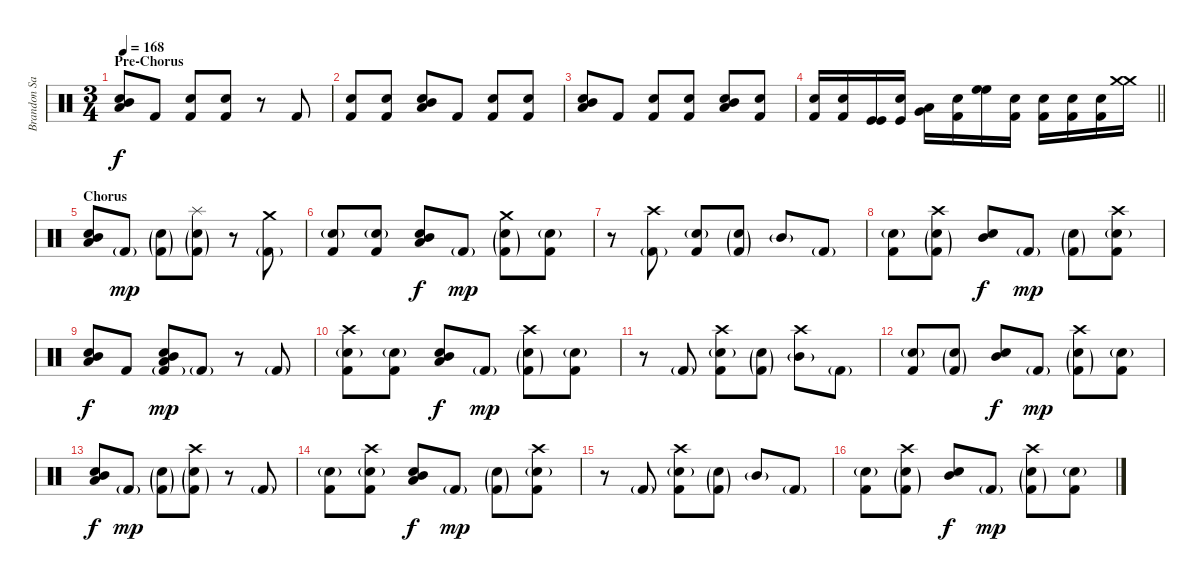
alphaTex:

\track ("Brandon Saller" "Brandon Sa") {instrument percussion}
\staff {score}
\articulation defaults
\ts (3 4)
\section ("" "Pre-Chorus")
\tempo 168
\clef neutral
\ks c
("Snare (hit) 2" "Low Tom (hit)" "Mid Tom (hit)").8{dy f} "Kick (hit) 2".8 ("Snare (hit)" "Kick (hit) 2").8 ("Snare (hit)" "Kick (hit) 2").8 r.8 "Kick (hit) 2".8 |
("Snare (hit)" "Kick (hit) 2").8 ("Snare (hit)" "Kick (hit) 2").8 ("Snare (hit) 2" "Low Tom (hit)" "Mid Tom (hit)").8 "Kick (hit) 2".8 ("Snare (hit)" "Kick (hit) 2").8 ("Snare (hit)" "Kick (hit) 2").8 |
("Snare (hit) 2" "Low Tom (hit)" "Mid Tom (hit)").8 "Kick (hit) 2".8 ("Snare (hit)" "Kick (hit) 2").8 ("Snare (hit)" "Kick (hit) 2").8 ("Snare (hit) 2" "Low Tom (hit)" "Mid Tom (hit)").8 ("Snare (hit) 2" "Kick (hit) 2").8 |
\barLineRight lightlight
("Snare (hit) 2" "Kick (hit) 2").16 ("Snare (hit) 2" "Kick (hit) 2").16 ("Kick (hit)" "Kick (hit)").16 ("Snare (hit) 2" "Kick (hit)").16 ("Low Tom (hit)" "Very Low Tom (hit)").16 ("Snare (hit)" "Kick (hit) 2").16 ("High Floor Tom (hit)" "High Floor Tom (hit)").16 ("Snare (hit) 2" "Kick (hit) 2").16 ("Snare (hit) 2" "Kick (hit) 2").16 ("Snare (hit) 2" "Kick (hit) 2").16 ("Snare (hit) 2" "Kick (hit) 2").16 ("Crash medium (hit)" "Crash medium (hit)").16 |
\section ("" "Chorus")
("Snare (hit) 2" "Low Tom (hit)" "Mid Tom (hit)").8 "Kick (hit) 2"{g}.8{dy mp} ("Snare (hit)"{g} "Kick (hit) 2"{g}).8 ("Splash (hit)" "Snare (hit)"{g} "Kick (hit) 2"{g}).8 r.8 ("Crash medium (hit)" "Kick (hit) 2"{g}).8 |
("Snare (hit)"{g} "Kick (hit) 2").8 ("Snare (hit)"{g} "Kick (hit) 2").8 ("Snare (hit) 2" "Low Tom (hit)" "Mid Tom (hit)").8{dy f} "Kick (hit) 2"{g}.8{dy mp} ("Crash medium (hit)" "Snare (hit)"{g} "Kick (hit) 2"{g}).8 ("Snare (hit)"{g} "Kick (hit) 2").8 |
r.8 ("Crash high (hit)" "Kick (hit) 2"{g}).8 ("Snare (hit)"{g} "Kick (hit) 2").8 ("Snare (hit)"{g} "Kick (hit) 2"{g}).8 "Mid Tom (hit)"{g}.8 "Kick (hit) 2"{g}.8 |
("Snare (hit)"{g} "Kick (hit) 2").8 ("Crash high (hit)" "Snare (hit)"{g} "Kick (hit) 2"{g}).8 ("Snare (hit) 2" "Mid Tom (hit)").8{dy f} "Kick (hit) 2"{g}.8{dy mp} ("Snare (hit)"{g} "Kick (hit) 2"{g}).8 ("Crash high (hit)" "Snare (hit)"{g} "Kick (hit) 2").8 |
("Snare (hit) 2" "Low Tom (hit)" "Mid Tom (hit)").8{dy f} "Kick (hit) 2".8 ("Snare (hit) 2" "Low Tom (hit)" "Mid Tom (hit)" "Kick (hit) 2"{g}).8{dy mp} "Kick (hit) 2"{g}.8 r.8 "Kick (hit) 2"{g}.8 |
("Crash high (hit)" "Snare (hit)"{g} "Kick (hit) 2").8 ("Snare (hit)"{g} "Kick (hit) 2").8 ("Snare (hit) 2" "Low Tom (hit)" "Mid Tom (hit)").8{dy f} "Kick (hit) 2"{g}.8{dy mp} ("Crash high (hit)" "Snare (hit)"{g} "Kick (hit) 2"{g}).8 ("Snare (hit)"{g} "Kick (hit) 2").8 |
r.8 "Kick (hit) 2"{g}.8 ("Crash high (hit)" "Snare (hit)"{g} "Kick (hit) 2").8 ("Snare (hit)"{g} "Kick (hit) 2"{g}).8 ("Crash high (hit)" "Mid Tom (hit)"{g}).8 "Kick (hit) 2"{g}.8 |
("Snare (hit)"{g} "Kick (hit) 2").8 ("Snare (hit)"{g} "Kick (hit) 2"{g}).8 ("Snare (hit) 2" "Mid Tom (hit)").8{dy f} "Kick (hit) 2"{g}.8{dy mp} ("Crash high (hit)" "Snare (hit)"{g} "Kick (hit) 2"{g}).8 ("Snare (hit)"{g} "Kick (hit) 2").8 |
("Snare (hit) 2" "Low Tom (hit)" "Mid Tom (hit)").8{dy f} "Kick (hit) 2"{g}.8{dy mp} ("Snare (hit)"{g} "Kick (hit) 2"{g}).8 ("Crash high (hit)" "Snare (hit)"{g} "Kick (hit) 2"{g}).8 r.8 "Kick (hit) 2"{g}.8 |
("Snare (hit)"{g} "Kick (hit) 2").8 ("Crash high (hit)" "Snare (hit)"{g} "Kick (hit) 2").8 ("Snare (hit) 2" "Low Tom (hit)" "Mid Tom (hit)").8{dy f} "Kick (hit) 2"{g}.8{dy mp} ("Snare (hit)"{g} "Kick (hit) 2"{g}).8 ("Crash high (hit)" "Snare (hit)"{g} "Kick (hit) 2").8 |
r.8 "Kick (hit) 2"{g}.8 ("Crash high (hit)" "Snare (hit)"{g} "Kick (hit) 2").8 ("Snare (hit)"{g} "Kick (hit) 2"{g}).8 "Mid Tom (hit)"{g}.8 "Kick (hit) 2"{g}.8 |
("Snare (hit)"{g} "Kick (hit) 2").8 ("Crash high (hit)" "Snare (hit)"{g} "Kick (hit) 2"{g}).8 ("Snare (hit) 2" "Mid Tom (hit)").8{dy f} "Kick (hit) 2"{g}.8{dy mp} ("Crash high (hit)" "Snare (hit)"{g} "Kick (hit) 2"{g}).8 ("Snare (hit)"{g} "Kick (hit) 2").8
